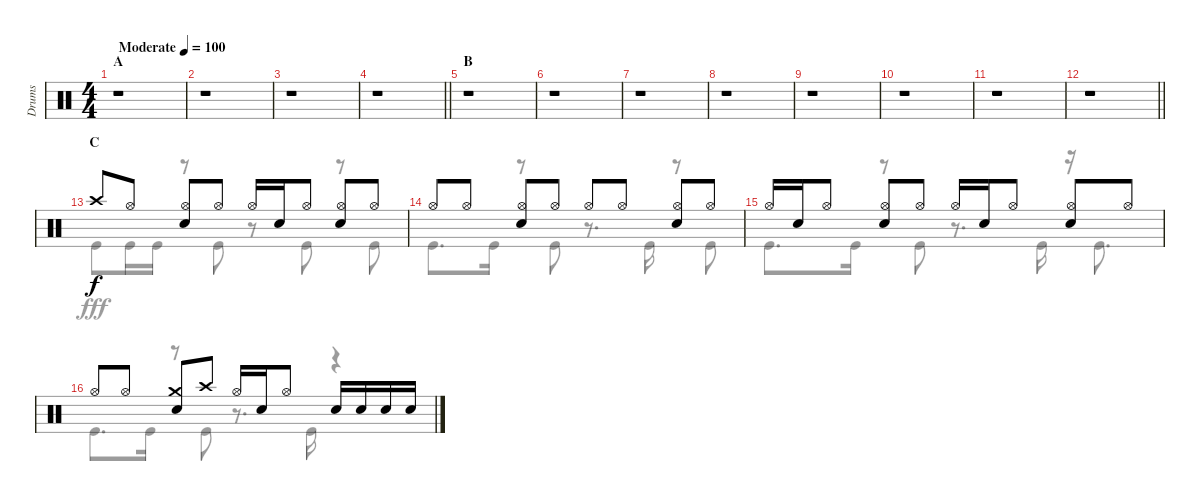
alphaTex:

\track ("Drums" "Drums") {instrument percussion}
\staff {score}
\articulation defaults
\voice
\ts (4 4)
\section ("" "A")
\tempo (100 "Moderate")
\clef neutral
\ks c
r.1{dy f} |
r.1 |
r.1 |
\barLineRight lightlight
r.1 |
\section ("" "B")
r.1 |
r.1 |
r.1 |
r.1 |
r.1 |
r.1 |
r.1 |
\barLineRight lightlight
r.1 |
\section ("" "C")
"Crash high (hit)".8 "Hi-Hat (open)".8 ("Hi-Hat (open)" "Snare (hit) 2").8 "Hi-Hat (open)".8 "Hi-Hat (open)".16 "Snare (hit) 2".16 "Hi-Hat (open)".8 ("Hi-Hat (open)" "Snare (hit) 2").8 "Hi-Hat (open)".8 |
"Hi-Hat (open)".8 "Hi-Hat (open)".8 ("Hi-Hat (open)" "Snare (hit) 2").8 "Hi-Hat (open)".8 "Hi-Hat (open)".8 "Hi-Hat (open)".8 ("Hi-Hat (open)" "Snare (hit) 2").8 "Hi-Hat (open)".8 |
"Hi-Hat (open)".16 "Snare (hit) 2".16 "Hi-Hat (open)".8 ("Hi-Hat (open)" "Snare (hit) 2").8 "Hi-Hat (open)".8 "Hi-Hat (open)".16 "Snare (hit) 2".16 "Hi-Hat (open)".8 ("Hi-Hat (open)" "Snare (hit) 2").8 "Hi-Hat (open)".8 |
"Hi-Hat (open)".8 "Hi-Hat (open)".8 ("Crash medium (hit)" "Snare (hit) 2").8 "Crash high (hit)".8 "Hi-Hat (open)".16 "Snare (hit) 2".16 "Hi-Hat (open)".8 "Snare (hit) 2".16 "Snare (hit) 2".16 "Snare (hit) 2".16 "Snare (hit) 2".16
\voice
\clef neutral
\ottava regular
\simile none
\ks c
r.1{dy fff} |
r.1 |
r.1 |
\barLineRight lightlight
r.1 |
r.1 |
r.1 |
r.1 |
r.1 |
r.1 |
r.1 |
r.1 |
\barLineRight lightlight
r.1 |
"Kick (hit)".8 "Kick (hit)".16 "Kick (hit)".16 r.8 "Kick (hit)".8 r.8 "Kick (hit)".8 r.8 "Kick (hit)".8 |
"Kick (hit)".8{d} "Kick (hit)".16 r.8 "Kick (hit)".8 r.8{d} "Kick (hit)".16 r.8 "Kick (hit)".8 |
"Kick (hit)".8{d} "Kick (hit)".16 r.8 "Kick (hit)".8 r.8{d} "Kick (hit)".16 r.16 "Kick (hit)".8{d} |
"Kick (hit)".8{d} "Kick (hit)".16 r.8 "Kick (hit)".8 r.8{d} "Kick (hit)".16 r.4
